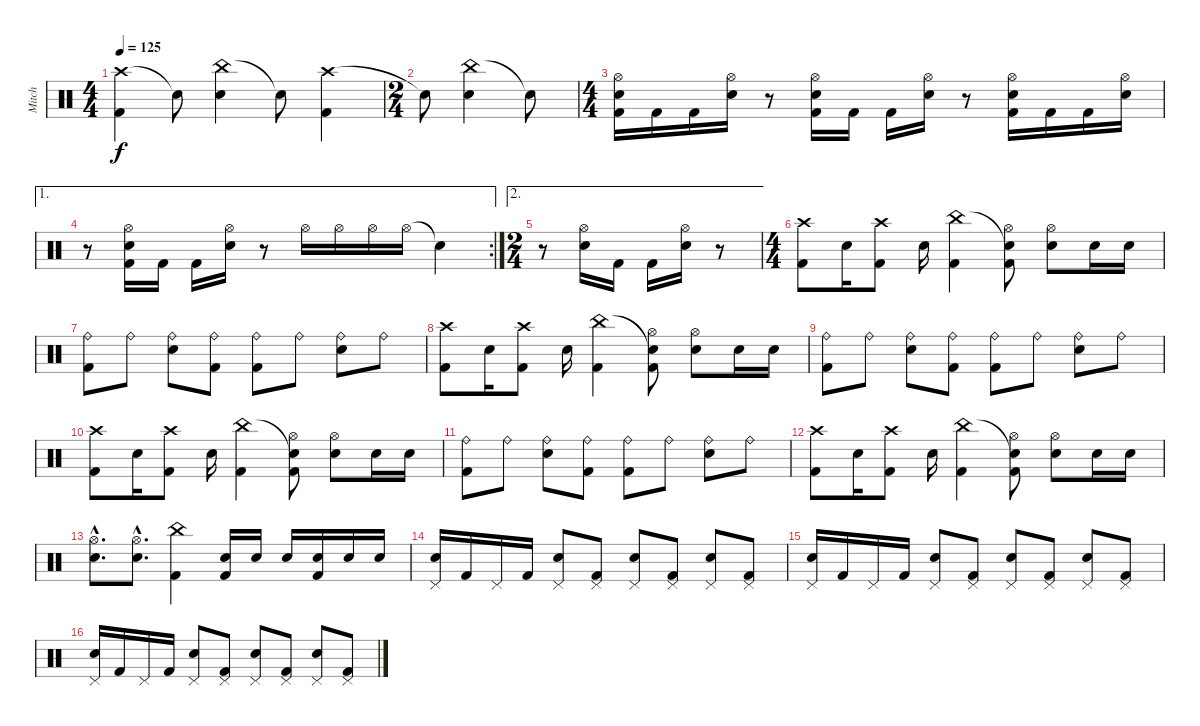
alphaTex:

\track ("Mitch" "Mitch") {instrument percussion}
\staff {score}
\articulation defaults
\ts (4 4)
\tempo 125
\clef neutral
\ks c
("Crash high (hit)" "Kick (hit) 2").4{dy f} "Snare (hit)"{t}.8 ("China (hit)" "Snare (hit) 2").4 "Snare (hit)"{t}.8 ("Crash high (hit)" "Kick (hit) 2").4 |
\ts (2 4)
"Snare (hit)"{t}.8 ("China (hit)" "Snare (hit) 2").4 "Snare (hit)"{t}.8 |
\ts (4 4)
("Snare (hit) 2" "Kick (hit) 2" "Hi-Hat (open)").16 "Kick (hit) 2".16 "Kick (hit) 2".16 ("Snare (hit) 2" "Hi-Hat (open)").16 r.8 ("Snare (hit) 2" "Kick (hit) 2" "Hi-Hat (open)").16 "Kick (hit) 2".16 "Kick (hit) 2".16 ("Snare (hit) 2" "Hi-Hat (open)").16 r.8 ("Snare (hit) 2" "Kick (hit) 2" "Hi-Hat (open)").16 "Kick (hit) 2".16 "Kick (hit) 2".16 ("Snare (hit) 2" "Hi-Hat (open)").16 |
\ae 1
\rc 2
r.8 ("Snare (hit) 2" "Kick (hit) 2" "Hi-Hat (open)").16 "Kick (hit) 2".16 "Kick (hit) 2".16 ("Snare (hit) 2" "Hi-Hat (open)").16 r.8 "Hi-Hat (open)".16 "Hi-Hat (open)".16 "Hi-Hat (open)".16 "Hi-Hat (open)".16 "Snare (hit)"{t}.4 |
\ae 2
\ts (2 4)
r.8 ("Snare (hit) 2" "Hi-Hat (open)").16 "Kick (hit) 2".16 "Kick (hit) 2".16 ("Snare (hit) 2" "Hi-Hat (open)").16 r.8 |
\ts (4 4)
("Crash high (hit)" "Kick (hit) 2").8 "Snare (hit) 2".16 ("Crash high (hit)" "Kick (hit) 2").8 "Snare (hit) 2".16 ("China (hit)" "Kick (hit) 2").4 ("Snare (hit)"{t} "Kick (hit) 2" "Hi-Hat (open)").8 ("Snare (hit) 2" "Hi-Hat (open)").8 "Snare (hit) 2".16 "Snare (hit) 2".16 |
("Kick (hit) 2" "Ride (bell)").8 "Ride (bell)".8 ("Snare (hit) 2" "Ride (bell)").8 ("Kick (hit) 2" "Ride (bell)").8 ("Kick (hit) 2" "Ride (bell)").8 "Ride (bell)".8 ("Snare (hit) 2" "Ride (bell)").8 "Ride (bell)".8 |
("Crash high (hit)" "Kick (hit) 2").8 "Snare (hit) 2".16 ("Crash high (hit)" "Kick (hit) 2").8 "Snare (hit) 2".16 ("China (hit)" "Kick (hit) 2").4 ("Snare (hit)"{t} "Kick (hit) 2" "Hi-Hat (open)").8 ("Snare (hit) 2" "Hi-Hat (open)").8 "Snare (hit) 2".16 "Snare (hit) 2".16 |
("Kick (hit) 2" "Ride (bell)").8 "Ride (bell)".8 ("Snare (hit) 2" "Ride (bell)").8 ("Kick (hit) 2" "Ride (bell)").8 ("Kick (hit) 2" "Ride (bell)").8 "Ride (bell)".8 ("Snare (hit) 2" "Ride (bell)").8 "Ride (bell)".8 |
("Crash high (hit)" "Kick (hit) 2").8 "Snare (hit) 2".16 ("Crash high (hit)" "Kick (hit) 2").8 "Snare (hit) 2".16 ("China (hit)" "Kick (hit) 2").4 ("Snare (hit)"{t} "Kick (hit) 2" "Hi-Hat (open)").8 ("Snare (hit) 2" "Hi-Hat (open)").8 "Snare (hit) 2".16 "Snare (hit) 2".16 |
("Kick (hit) 2" "Ride (bell)").8 "Ride (bell)".8 ("Snare (hit) 2" "Ride (bell)").8 ("Kick (hit) 2" "Ride (bell)").8 ("Kick (hit) 2" "Ride (bell)").8 "Ride (bell)".8 ("Snare (hit) 2" "Ride (bell)").8 "Ride (bell)".8 |
("Crash high (hit)" "Kick (hit) 2").8 "Snare (hit) 2".16 ("Crash high (hit)" "Kick (hit) 2").8 "Snare (hit) 2".16 ("China (hit)" "Kick (hit) 2").4 ("Snare (hit)"{t} "Kick (hit) 2" "Hi-Hat (open)").8 ("Snare (hit) 2" "Hi-Hat (open)").8 "Snare (hit) 2".16 "Snare (hit) 2".16 |
("Snare (hit) 2"{hac} "Hi-Hat (open)"{hac}).8{d} ("Snare (hit) 2"{hac} "Hi-Hat (open)"{hac}).8{d} ("China (hit)" "Kick (hit) 2").4 ("Snare (hit) 2" "Kick (hit) 2").16 "Snare (hit) 2".16 "Snare (hit) 2".16 ("Snare (hit) 2" "Kick (hit) 2").16 "Snare (hit) 2".16 "Snare (hit) 2".16 |
("Snare (hit) 2" "Pedal Hi-Hat (hit)").16 "Kick (hit) 2".16 "Pedal Hi-Hat (hit)".16 "Kick (hit) 2".16 ("Snare (hit) 2" "Pedal Hi-Hat (hit)").8 ("Kick (hit) 2" "Pedal Hi-Hat (hit)").8 ("Snare (hit) 2" "Pedal Hi-Hat (hit)").8 ("Kick (hit) 2" "Pedal Hi-Hat (hit)").8 ("Snare (hit) 2" "Pedal Hi-Hat (hit)").8 ("Kick (hit) 2" "Pedal Hi-Hat (hit)").8 |
("Snare (hit) 2" "Pedal Hi-Hat (hit)").16 "Kick (hit) 2".16 "Pedal Hi-Hat (hit)".16 "Kick (hit) 2".16 ("Snare (hit) 2" "Pedal Hi-Hat (hit)").8 ("Kick (hit) 2" "Pedal Hi-Hat (hit)").8 ("Snare (hit) 2" "Pedal Hi-Hat (hit)").8 ("Kick (hit) 2" "Pedal Hi-Hat (hit)").8 ("Snare (hit) 2" "Pedal Hi-Hat (hit)").8 ("Kick (hit) 2" "Pedal Hi-Hat (hit)").8 |
("Snare (hit) 2" "Pedal Hi-Hat (hit)").16 "Kick (hit) 2".16 "Pedal Hi-Hat (hit)".16 "Kick (hit) 2".16 ("Snare (hit) 2" "Pedal Hi-Hat (hit)").8 ("Kick (hit) 2" "Pedal Hi-Hat (hit)").8 ("Snare (hit) 2" "Pedal Hi-Hat (hit)").8 ("Kick (hit) 2" "Pedal Hi-Hat (hit)").8 ("Snare (hit) 2" "Pedal Hi-Hat (hit)").8 ("Kick (hit) 2" "Pedal Hi-Hat (hit)").8
